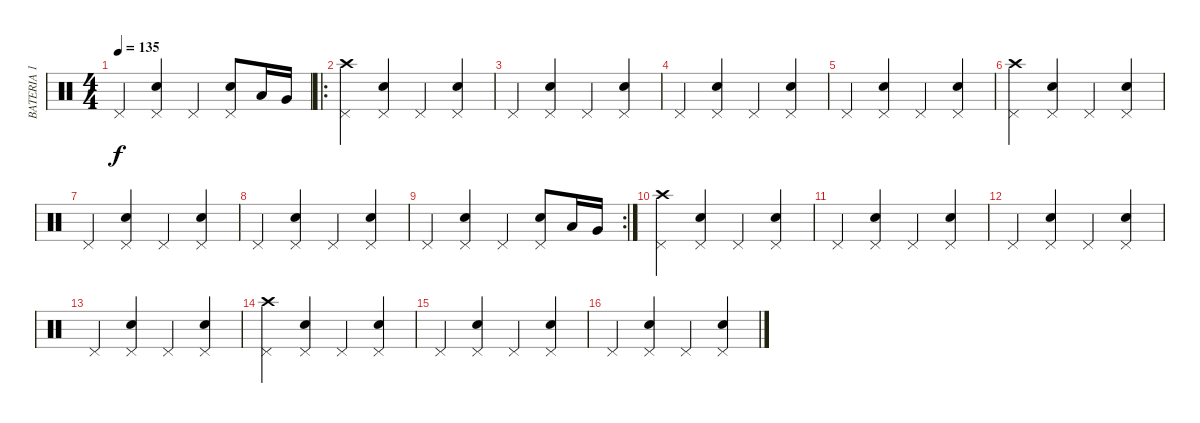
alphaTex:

\track ("BATERIA 1" "BATERIA 1") {instrument percussion}
\staff {score}
\articulation defaults
\ts (4 4)
\tempo 135
\clef neutral
\ks c "Pedal Hi-Hat (hit)".4{dy f}
("Electric Snare (hit)" "Pedal Hi-Hat (hit)").4 "Pedal Hi-Hat (hit)".4 ("Electric Snare (hit)" "Pedal Hi-Hat (hit)").8 "Low Tom (hit)".16 "Very Low Tom (hit)".16 |
\ro
("Pedal Hi-Hat (hit)" "Crash high (hit)").4 ("Electric Snare (hit)" "Pedal Hi-Hat (hit)").4 "Pedal Hi-Hat (hit)".4 ("Electric Snare (hit)" "Pedal Hi-Hat (hit)").4 |
"Pedal Hi-Hat (hit)".4 ("Electric Snare (hit)" "Pedal Hi-Hat (hit)").4 "Pedal Hi-Hat (hit)".4 ("Electric Snare (hit)" "Pedal Hi-Hat (hit)").4 |
"Pedal Hi-Hat (hit)".4 ("Electric Snare (hit)" "Pedal Hi-Hat (hit)").4 "Pedal Hi-Hat (hit)".4 ("Electric Snare (hit)" "Pedal Hi-Hat (hit)").4 |
"Pedal Hi-Hat (hit)".4 ("Electric Snare (hit)" "Pedal Hi-Hat (hit)").4 "Pedal Hi-Hat (hit)".4 ("Electric Snare (hit)" "Pedal Hi-Hat (hit)").4 |
("Pedal Hi-Hat (hit)" "Crash high (hit)").4 ("Electric Snare (hit)" "Pedal Hi-Hat (hit)").4 "Pedal Hi-Hat (hit)".4 ("Electric Snare (hit)" "Pedal Hi-Hat (hit)").4 |
"Pedal Hi-Hat (hit)".4 ("Electric Snare (hit)" "Pedal Hi-Hat (hit)").4 "Pedal Hi-Hat (hit)".4 ("Electric Snare (hit)" "Pedal Hi-Hat (hit)").4 |
"Pedal Hi-Hat (hit)".4 ("Electric Snare (hit)" "Pedal Hi-Hat (hit)").4 "Pedal Hi-Hat (hit)".4 ("Electric Snare (hit)" "Pedal Hi-Hat (hit)").4 |
\rc 2 "Pedal Hi-Hat (hit)".4
("Electric Snare (hit)" "Pedal Hi-Hat (hit)").4 "Pedal Hi-Hat (hit)".4 ("Electric Snare (hit)" "Pedal Hi-Hat (hit)").8 "Low Tom (hit)".16 "Very Low Tom (hit)".16 |
("Pedal Hi-Hat (hit)" "Crash high (hit)").4 ("Electric Snare (hit)" "Pedal Hi-Hat (hit)").4 "Pedal Hi-Hat (hit)".4 ("Electric Snare (hit)" "Pedal Hi-Hat (hit)").4 |
"Pedal Hi-Hat (hit)".4 ("Electric Snare (hit)" "Pedal Hi-Hat (hit)").4 "Pedal Hi-Hat (hit)".4 ("Electric Snare (hit)" "Pedal Hi-Hat (hit)").4 |
"Pedal Hi-Hat (hit)".4 ("Electric Snare (hit)" "Pedal Hi-Hat (hit)").4 "Pedal Hi-Hat (hit)".4 ("Electric Snare (hit)" "Pedal Hi-Hat (hit)").4 |
"Pedal Hi-Hat (hit)".4 ("Electric Snare (hit)" "Pedal Hi-Hat (hit)").4 "Pedal Hi-Hat (hit)".4 ("Electric Snare (hit)" "Pedal Hi-Hat (hit)").4 |
("Pedal Hi-Hat (hit)" "Crash high (hit)").4 ("Electric Snare (hit)" "Pedal Hi-Hat (hit)").4 "Pedal Hi-Hat (hit)".4 ("Electric Snare (hit)" "Pedal Hi-Hat (hit)").4 |
"Pedal Hi-Hat (hit)".4 ("Electric Snare (hit)" "Pedal Hi-Hat (hit)").4 "Pedal Hi-Hat (hit)".4 ("Electric Snare (hit)" "Pedal Hi-Hat (hit)").4 |
"Pedal Hi-Hat (hit)".4 ("Electric Snare (hit)" "Pedal Hi-Hat (hit)").4 "Pedal Hi-Hat (hit)".4 ("Electric Snare (hit)" "Pedal Hi-Hat (hit)").4
